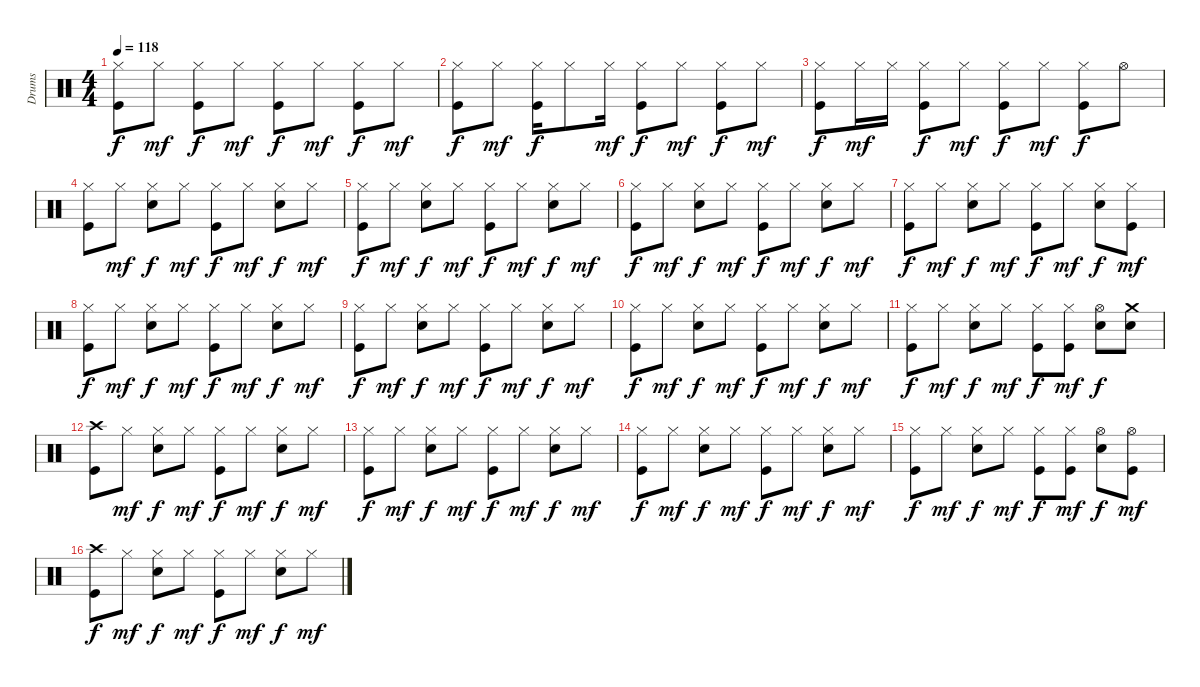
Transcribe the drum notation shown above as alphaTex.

\track ("Drums" "Drums") {instrument percussion}
\staff {score}
\articulation defaults
\ts (4 4)
\tempo 118
\clef neutral
\ks c
("Hi-Hat (closed)" "Kick (hit)").8{dy f} "Hi-Hat (closed)".8{dy mf} ("Hi-Hat (closed)" "Kick (hit)").8{dy f} "Hi-Hat (closed)".8{dy mf} ("Hi-Hat (closed)" "Kick (hit)").8{dy f} "Hi-Hat (closed)".8{dy mf} ("Hi-Hat (closed)" "Kick (hit)").8{dy f} "Hi-Hat (closed)".8{dy mf} |
("Hi-Hat (closed)" "Kick (hit)").8{dy f} "Hi-Hat (closed)".8{dy mf} ("Hi-Hat (closed)" "Kick (hit)").16{dy f} "Hi-Hat (closed)".8 "Hi-Hat (closed)".16{dy mf} ("Hi-Hat (closed)" "Kick (hit)").8{dy f} "Hi-Hat (closed)".8{dy mf} ("Hi-Hat (closed)" "Kick (hit)").8{dy f} "Hi-Hat (closed)".8{dy mf} |
("Hi-Hat (closed)" "Kick (hit)").8{dy f} "Hi-Hat (closed)".16{dy mf} "Hi-Hat (closed)".16 ("Hi-Hat (closed)" "Kick (hit)").8{dy f} "Hi-Hat (closed)".8{dy mf} ("Hi-Hat (closed)" "Kick (hit)").8{dy f} "Hi-Hat (closed)".8{dy mf} ("Hi-Hat (closed)" "Kick (hit)").8{dy f} "Hi-Hat (open)".8 |
("Hi-Hat (closed)" "Kick (hit)").8 "Hi-Hat (closed)".8{dy mf} ("Hi-Hat (closed)" "Snare (hit) 2").8{dy f} "Hi-Hat (closed)".8{dy mf} ("Hi-Hat (closed)" "Kick (hit)").8{dy f} "Hi-Hat (closed)".8{dy mf} ("Hi-Hat (closed)" "Snare (hit) 2").8{dy f} "Hi-Hat (closed)".8{dy mf} |
("Hi-Hat (closed)" "Kick (hit)").8{dy f} "Hi-Hat (closed)".8{dy mf} ("Hi-Hat (closed)" "Snare (hit) 2").8{dy f} "Hi-Hat (closed)".8{dy mf} ("Hi-Hat (closed)" "Kick (hit)").8{dy f} "Hi-Hat (closed)".8{dy mf} ("Hi-Hat (closed)" "Snare (hit) 2").8{dy f} "Hi-Hat (closed)".8{dy mf} |
("Hi-Hat (closed)" "Kick (hit)").8{dy f} "Hi-Hat (closed)".8{dy mf} ("Hi-Hat (closed)" "Snare (hit) 2").8{dy f} "Hi-Hat (closed)".8{dy mf} ("Hi-Hat (closed)" "Kick (hit)").8{dy f} "Hi-Hat (closed)".8{dy mf} ("Hi-Hat (closed)" "Snare (hit) 2").8{dy f} "Hi-Hat (closed)".8{dy mf} |
("Hi-Hat (closed)" "Kick (hit)").8{dy f} "Hi-Hat (closed)".8{dy mf} ("Hi-Hat (closed)" "Snare (hit) 2").8{dy f} "Hi-Hat (closed)".8{dy mf} ("Hi-Hat (closed)" "Kick (hit)").8{dy f} "Hi-Hat (closed)".8{dy mf} ("Hi-Hat (closed)" "Snare (hit) 2").8{dy f} ("Hi-Hat (closed)" "Kick (hit)").8{dy mf} |
("Hi-Hat (closed)" "Kick (hit)").8{dy f} "Hi-Hat (closed)".8{dy mf} ("Hi-Hat (closed)" "Snare (hit) 2").8{dy f} "Hi-Hat (closed)".8{dy mf} ("Hi-Hat (closed)" "Kick (hit)").8{dy f} "Hi-Hat (closed)".8{dy mf} ("Hi-Hat (closed)" "Snare (hit) 2").8{dy f} "Hi-Hat (closed)".8{dy mf} |
("Hi-Hat (closed)" "Kick (hit)").8{dy f} "Hi-Hat (closed)".8{dy mf} ("Hi-Hat (closed)" "Snare (hit) 2").8{dy f} "Hi-Hat (closed)".8{dy mf} ("Hi-Hat (closed)" "Kick (hit)").8{dy f} "Hi-Hat (closed)".8{dy mf} ("Hi-Hat (closed)" "Snare (hit) 2").8{dy f} "Hi-Hat (closed)".8{dy mf} |
("Hi-Hat (closed)" "Kick (hit)").8{dy f} "Hi-Hat (closed)".8{dy mf} ("Hi-Hat (closed)" "Snare (hit) 2").8{dy f} "Hi-Hat (closed)".8{dy mf} ("Hi-Hat (closed)" "Kick (hit)").8{dy f} "Hi-Hat (closed)".8{dy mf} ("Hi-Hat (closed)" "Snare (hit) 2").8{dy f} "Hi-Hat (closed)".8{dy mf} |
("Hi-Hat (closed)" "Kick (hit)").8{dy f} "Hi-Hat (closed)".8{dy mf} ("Hi-Hat (closed)" "Snare (hit) 2").8{dy f} "Hi-Hat (closed)".8{dy mf} ("Hi-Hat (closed)" "Kick (hit)").8{dy f} ("Hi-Hat (closed)" "Kick (hit)").8{dy mf} ("Hi-Hat (open)" "Snare (hit) 2").8{dy f} ("Crash medium (hit)" "Snare (hit) 2").8 |
("Crash high (hit)" "Kick (hit)").8 "Hi-Hat (closed)".8{dy mf} ("Hi-Hat (closed)" "Snare (hit) 2").8{dy f} "Hi-Hat (closed)".8{dy mf} ("Hi-Hat (closed)" "Kick (hit)").8{dy f} "Hi-Hat (closed)".8{dy mf} ("Hi-Hat (closed)" "Snare (hit) 2").8{dy f} "Hi-Hat (closed)".8{dy mf} |
("Hi-Hat (closed)" "Kick (hit)").8{dy f} "Hi-Hat (closed)".8{dy mf} ("Hi-Hat (closed)" "Snare (hit) 2").8{dy f} "Hi-Hat (closed)".8{dy mf} ("Hi-Hat (closed)" "Kick (hit)").8{dy f} "Hi-Hat (closed)".8{dy mf} ("Hi-Hat (closed)" "Snare (hit) 2").8{dy f} "Hi-Hat (closed)".8{dy mf} |
("Hi-Hat (closed)" "Kick (hit)").8{dy f} "Hi-Hat (closed)".8{dy mf} ("Hi-Hat (closed)" "Snare (hit) 2").8{dy f} "Hi-Hat (closed)".8{dy mf} ("Hi-Hat (closed)" "Kick (hit)").8{dy f} "Hi-Hat (closed)".8{dy mf} ("Hi-Hat (closed)" "Snare (hit) 2").8{dy f} "Hi-Hat (closed)".8{dy mf} |
("Hi-Hat (closed)" "Kick (hit)").8{dy f} "Hi-Hat (closed)".8{dy mf} ("Hi-Hat (closed)" "Snare (hit) 2").8{dy f} "Hi-Hat (closed)".8{dy mf} ("Hi-Hat (closed)" "Kick (hit)").8{dy f} ("Hi-Hat (closed)" "Kick (hit)").8{dy mf} ("Hi-Hat (open)" "Snare (hit) 2").8{dy f} ("Hi-Hat (open)" "Kick (hit)").8{dy mf} |
("Kick (hit)" "Crash high (hit)").8{dy f} "Hi-Hat (closed)".8{dy mf} ("Hi-Hat (closed)" "Snare (hit) 2").8{dy f} "Hi-Hat (closed)".8{dy mf} ("Hi-Hat (closed)" "Kick (hit)").8{dy f} "Hi-Hat (closed)".8{dy mf} ("Hi-Hat (closed)" "Snare (hit) 2").8{dy f} "Hi-Hat (closed)".8{dy mf}
